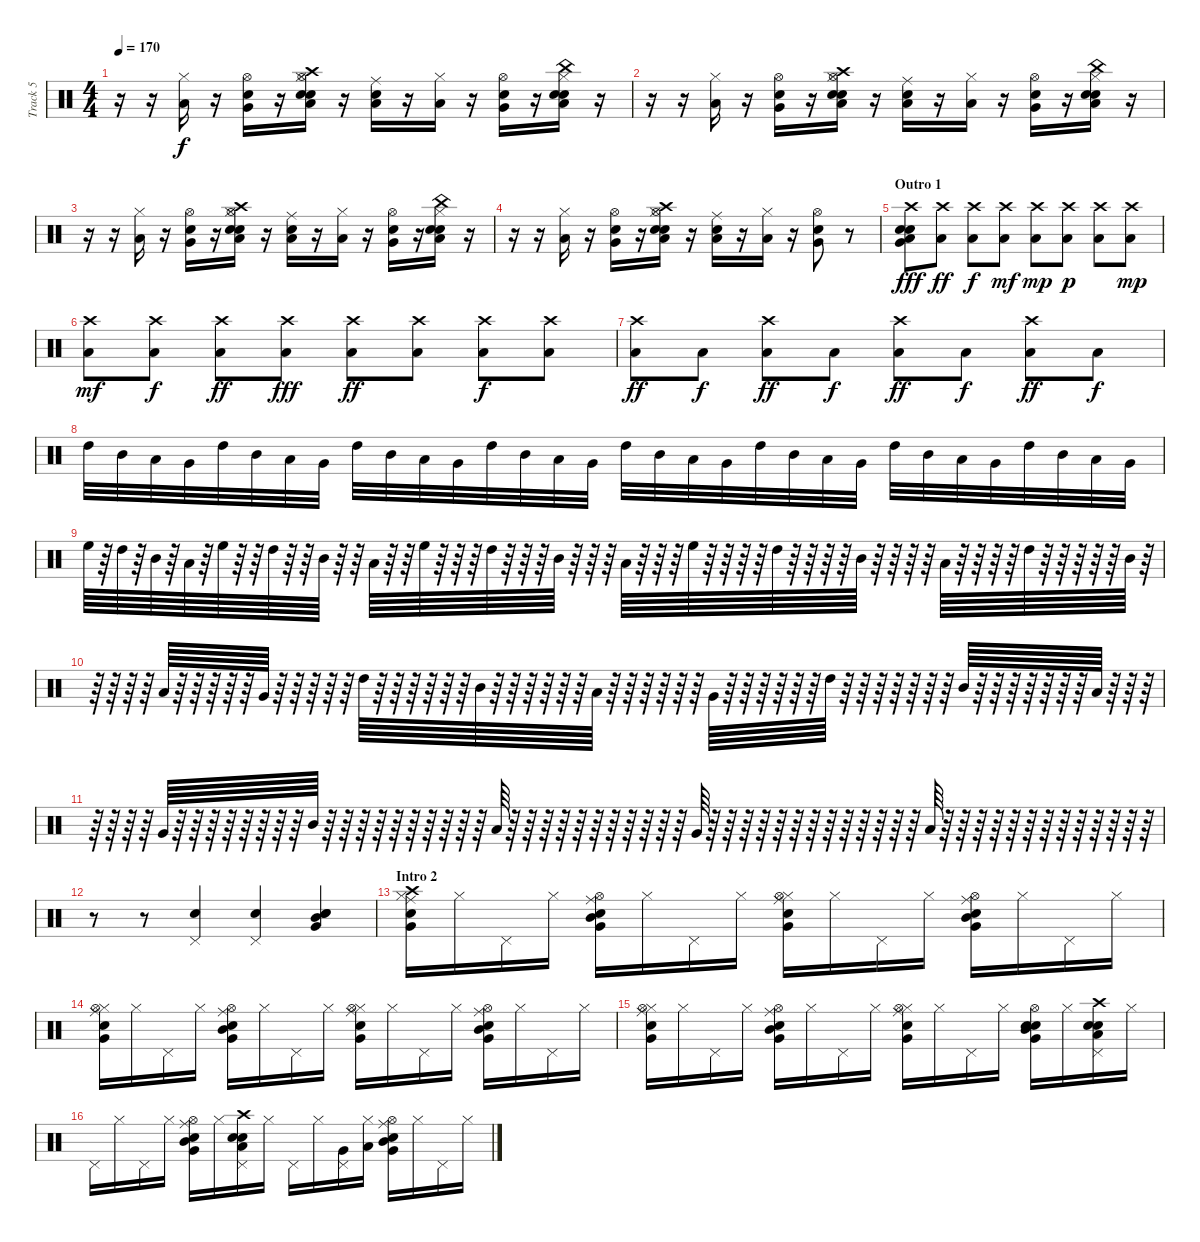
\track ("Track 5" "Track 5") {instrument percussion}
\staff {score}
\articulation defaults
\ts (4 4)
\tempo 170
\clef neutral
\ks c
r.16{dy f} r.16 ("Low Tom (hit)" "Hi-Hat (closed)").16 r.16 ("Very Low Tom (hit)" "Electric Snare (hit)" "Hi-Hat (open)").16 r.16 ("Low Tom (hit)" "Hi-Hat (closed)" "Snare (hit) 2" "Crash high (hit)" "Electric Snare (hit)" "Hi-Hat (open)").16 r.16 ("Ride (middle)" "Low Tom (hit)" "Snare (hit) 2").16 r.16 ("Low Tom (hit)" "Hi-Hat (closed)").16 r.16 ("Very Low Tom (hit)" "Electric Snare (hit)" "Hi-Hat (open)").16 r.16 ("Low Tom (hit)" "Hi-Hat (closed)" "Snare (hit) 2" "China (hit)" "Electric Snare (hit)").16 r.16 |
r.16 r.16 ("Low Tom (hit)" "Hi-Hat (closed)").16 r.16 ("Very Low Tom (hit)" "Electric Snare (hit)" "Hi-Hat (open)").16 r.16 ("Low Tom (hit)" "Hi-Hat (closed)" "Snare (hit) 2" "Crash high (hit)" "Electric Snare (hit)" "Hi-Hat (open)").16 r.16 ("Ride (middle)" "Low Tom (hit)" "Snare (hit) 2").16 r.16 ("Low Tom (hit)" "Hi-Hat (closed)").16 r.16 ("Very Low Tom (hit)" "Electric Snare (hit)" "Hi-Hat (open)").16 r.16 ("Low Tom (hit)" "Hi-Hat (closed)" "Snare (hit) 2" "China (hit)" "Electric Snare (hit)").16 r.16 |
r.16 r.16 ("Low Tom (hit)" "Hi-Hat (closed)").16 r.16 ("Very Low Tom (hit)" "Electric Snare (hit)" "Hi-Hat (open)").16 r.16 ("Low Tom (hit)" "Hi-Hat (closed)" "Snare (hit) 2" "Crash high (hit)" "Electric Snare (hit)" "Hi-Hat (open)").16 r.16 ("Ride (middle)" "Low Tom (hit)" "Snare (hit) 2").16 r.16 ("Low Tom (hit)" "Hi-Hat (closed)").16 r.16 ("Very Low Tom (hit)" "Electric Snare (hit)" "Hi-Hat (open)").16 r.16 ("Low Tom (hit)" "Hi-Hat (closed)" "Snare (hit) 2" "China (hit)" "Electric Snare (hit)").16 r.16 |
r.16 r.16 ("Low Tom (hit)" "Hi-Hat (closed)").16 r.16 ("Very Low Tom (hit)" "Electric Snare (hit)" "Hi-Hat (open)").16 r.16 ("Low Tom (hit)" "Hi-Hat (closed)" "Snare (hit) 2" "Crash high (hit)" "Electric Snare (hit)" "Hi-Hat (open)").16 r.16 ("Ride (middle)" "Low Tom (hit)" "Snare (hit) 2").16 r.16 ("Low Tom (hit)" "Hi-Hat (closed)").16 r.16 ("Very Low Tom (hit)" "Electric Snare (hit)" "Hi-Hat (open)").8 r.8 |
\section ("" "Outro 1")
("Very Low Tom (hit)" "Low Tom (hit)" "Electric Snare (hit)" "Snare (hit) 2" "Crash high (hit)").8{dy fff} ("Low Floor Tom (hit)" "Crash high (hit)").8{dy ff} ("Low Floor Tom (hit)" "Crash high (hit)").8{dy f} ("Low Floor Tom (hit)" "Crash high (hit)").8{dy mf} ("Low Floor Tom (hit)" "Crash high (hit)").8{dy mp} ("Low Floor Tom (hit)" "Crash high (hit)").8{dy p} ("Low Floor Tom (hit)" "Crash high (hit)").8 ("Low Floor Tom (hit)" "Crash high (hit)").8{dy mp} |
("Low Floor Tom (hit)" "Crash high (hit)").8{dy mf} ("Low Floor Tom (hit)" "Crash high (hit)").8{dy f} ("Low Floor Tom (hit)" "Crash high (hit)").8{dy ff} ("Low Floor Tom (hit)" "Crash high (hit)").8{dy fff} ("Low Floor Tom (hit)" "Crash high (hit)").8{dy ff} ("Low Floor Tom (hit)" "Crash high (hit)").8 ("Low Floor Tom (hit)" "Crash high (hit)").8{dy f} ("Low Floor Tom (hit)" "Crash high (hit)").8 |
("Low Floor Tom (hit)" "Crash high (hit)").8{dy ff} "Low Floor Tom (hit)".8{dy f} ("Low Floor Tom (hit)" "Crash high (hit)").8{dy ff} "Low Floor Tom (hit)".8{dy f} ("Low Floor Tom (hit)" "Crash high (hit)").8{dy ff} "Low Floor Tom (hit)".8{dy f} ("Low Floor Tom (hit)" "Crash high (hit)").8{dy ff} "Low Floor Tom (hit)".8{dy f} |
"High Tom (hit)".32 "Mid Tom (hit)".32 "Low Tom (hit)".32 "Very Low Tom (hit)".32 "High Tom (hit)".32 "Mid Tom (hit)".32 "Low Tom (hit)".32 "Very Low Tom (hit)".32 "High Tom (hit)".32 "Mid Tom (hit)".32 "Low Tom (hit)".32 "Very Low Tom (hit)".32 "High Tom (hit)".32 "Mid Tom (hit)".32 "Low Tom (hit)".32 "Very Low Tom (hit)".32 "High Tom (hit)".32 "Mid Tom (hit)".32 "Low Tom (hit)".32 "Very Low Tom (hit)".32 "High Tom (hit)".32 "Mid Tom (hit)".32 "Low Tom (hit)".32 "Very Low Tom (hit)".32 "High Tom (hit)".32 "Mid Tom (hit)".32 "Low Tom (hit)".32 "Very Low Tom (hit)".32 "High Tom (hit)".32 "Mid Tom (hit)".32 "Low Tom (hit)".32 "Very Low Tom (hit)".32 |
"High Floor Tom (hit)".64 r.64 "High Tom (hit)".64 r.64 "Mid Tom (hit)".64 r.64 "Low Tom (hit)".64 r.64 "High Floor Tom (hit)".64 r.64 r.64 "High Tom (hit)".64 r.64 r.64 "Mid Tom (hit)".64 r.64 r.64 "Low Tom (hit)".64 r.64 r.64 "High Floor Tom (hit)".64 r.64 r.64 r.64 "High Tom (hit)".64 r.64 r.64 r.64 "Mid Tom (hit)".64 r.64 r.64 r.64 "Low Tom (hit)".64 r.64 r.64 r.64 "High Floor Tom (hit)".64 r.64 r.64 r.64 r.64 "High Tom (hit)".64 r.64 r.64 r.64 r.64 "Mid Tom (hit)".64 r.64 r.64 r.64 r.64 "Low Tom (hit)".64 r.64 r.64 r.64 r.64 "High Tom (hit)".64 r.64 r.64 r.64 r.64 r.64 "Mid Tom (hit)".64 r.64 |
r.64 r.64 r.64 r.64 "Low Tom (hit)".64 r.64 r.64 r.64 r.64 r.64 "Very Low Tom (hit)".64 r.64 r.64 r.64 r.64 r.64 "High Tom (hit)".64 r.64 r.64 r.64 r.64 r.64 r.64 "Mid Tom (hit)".64 r.64 r.64 r.64 r.64 r.64 r.64 "Low Tom (hit)".64 r.64 r.64 r.64 r.64 r.64 r.64 "Very Low Tom (hit)".64 r.64 r.64 r.64 r.64 r.64 r.64 "High Tom (hit)".64 r.64 r.64 r.64 r.64 r.64 r.64 r.64 "Mid Tom (hit)".64 r.64 r.64 r.64 r.64 r.64 r.64 r.64 "Low Tom (hit)".64 r.64 r.64 r.64 |
r.64 r.64 r.64 r.64 "Very Low Tom (hit)".64 r.64 r.64 r.64 r.64 r.64 r.64 r.64 r.64 "Mid Tom (hit)".64 r.64 r.64 r.64 r.64 r.64 r.64 r.64 r.64 r.64 r.64 "Low Tom (hit)".64 r.64 r.64 r.64 r.64 r.64 r.64 r.64 r.64 r.64 r.64 r.64 "Very Low Tom (hit)".64 r.64 r.64 r.64 r.64 r.64 r.64 r.64 r.64 r.64 r.64 r.64 r.64 r.64 "Low Floor Tom (hit)".64 r.64 r.64 r.64 r.64 r.64 r.64 r.64 r.64 r.64 r.64 r.64 r.64 r.64 |
r.8 r.8 ("Pedal Hi-Hat (hit)" "Snare (hit) 2").4 ("Pedal Hi-Hat (hit)" "Snare (hit) 2").4 ("Mid Tom (hit)" "Very Low Tom (hit)" "Electric Snare (hit)" "Snare (hit) 2").4 |
\section ("" "Intro 2")
("Very Low Tom (hit)" "Snare (hit) 2" "Hi-Hat (closed)" "Ride (middle)" "Crash high (hit)").16 "Hi-Hat (closed)".16 "Pedal Hi-Hat (hit)".16 "Hi-Hat (closed)".16 ("Ride (middle)" "Very Low Tom (hit)" "Mid Tom (hit)" "Electric Snare (hit)" "Hi-Hat (open)").16 "Hi-Hat (closed)".16 "Pedal Hi-Hat (hit)".16 "Hi-Hat (closed)".16 ("Very Low Tom (hit)" "Snare (hit) 2" "Hi-Hat (closed)" "Ride (middle)" "Hi-Hat (open)").16 "Hi-Hat (closed)".16 "Pedal Hi-Hat (hit)".16 "Hi-Hat (closed)".16 ("Ride (middle)" "Very Low Tom (hit)" "Mid Tom (hit)" "Electric Snare (hit)" "Hi-Hat (open)").16 "Hi-Hat (closed)".16 "Pedal Hi-Hat (hit)".16 "Hi-Hat (closed)".16 |
("Very Low Tom (hit)" "Snare (hit) 2" "Hi-Hat (closed)" "Ride (middle)" "Hi-Hat (open)").16 "Hi-Hat (closed)".16 "Pedal Hi-Hat (hit)".16 "Hi-Hat (closed)".16 ("Ride (middle)" "Very Low Tom (hit)" "Mid Tom (hit)" "Electric Snare (hit)" "Hi-Hat (open)").16 "Hi-Hat (closed)".16 "Pedal Hi-Hat (hit)".16 "Hi-Hat (closed)".16 ("Very Low Tom (hit)" "Snare (hit) 2" "Hi-Hat (closed)" "Ride (middle)" "Hi-Hat (open)").16 "Hi-Hat (closed)".16 "Pedal Hi-Hat (hit)".16 "Hi-Hat (closed)".16 ("Ride (middle)" "Very Low Tom (hit)" "Mid Tom (hit)" "Electric Snare (hit)" "Hi-Hat (open)").16 "Hi-Hat (closed)".16 "Pedal Hi-Hat (hit)".16 "Hi-Hat (closed)".16 |
("Very Low Tom (hit)" "Snare (hit) 2" "Hi-Hat (closed)" "Ride (middle)" "Hi-Hat (open)").16 "Hi-Hat (closed)".16 "Pedal Hi-Hat (hit)".16 "Hi-Hat (closed)".16 ("Ride (middle)" "Very Low Tom (hit)" "Mid Tom (hit)" "Electric Snare (hit)" "Hi-Hat (open)").16 "Hi-Hat (closed)".16 "Pedal Hi-Hat (hit)".16 "Hi-Hat (closed)".16 ("Very Low Tom (hit)" "Snare (hit) 2" "Hi-Hat (closed)" "Ride (middle)" "Hi-Hat (open)").16 "Hi-Hat (closed)".16 "Pedal Hi-Hat (hit)".16 "Hi-Hat (closed)".16 ("Hi-Hat (open)" "Very Low Tom (hit)" "Mid Tom (hit)" "Electric Snare (hit)" "Snare (hit) 2").16 "Hi-Hat (closed)".16 ("Pedal Hi-Hat (hit)" "Low Tom (hit)" "Electric Snare (hit)" "Snare (hit) 2" "Crash high (hit)").16 "Hi-Hat (closed)".16 |
"Pedal Hi-Hat (hit)".16 "Hi-Hat (closed)".16 "Pedal Hi-Hat (hit)".16 "Hi-Hat (closed)".16 ("Ride (middle)" "Very Low Tom (hit)" "Mid Tom (hit)" "Electric Snare (hit)" "Hi-Hat (open)").16 "Hi-Hat (closed)".16 ("Pedal Hi-Hat (hit)" "Low Tom (hit)" "Electric Snare (hit)" "Snare (hit) 2" "Crash high (hit)").16 "Hi-Hat (closed)".16 "Pedal Hi-Hat (hit)".16 "Hi-Hat (closed)".16 ("Pedal Hi-Hat (hit)" "Very Low Tom (hit)").16 ("Hi-Hat (closed)" "Low Tom (hit)").16 ("Ride (middle)" "Very Low Tom (hit)" "Mid Tom (hit)" "Electric Snare (hit)" "Hi-Hat (open)").16 "Hi-Hat (closed)".16 "Pedal Hi-Hat (hit)".16 "Hi-Hat (closed)".16
